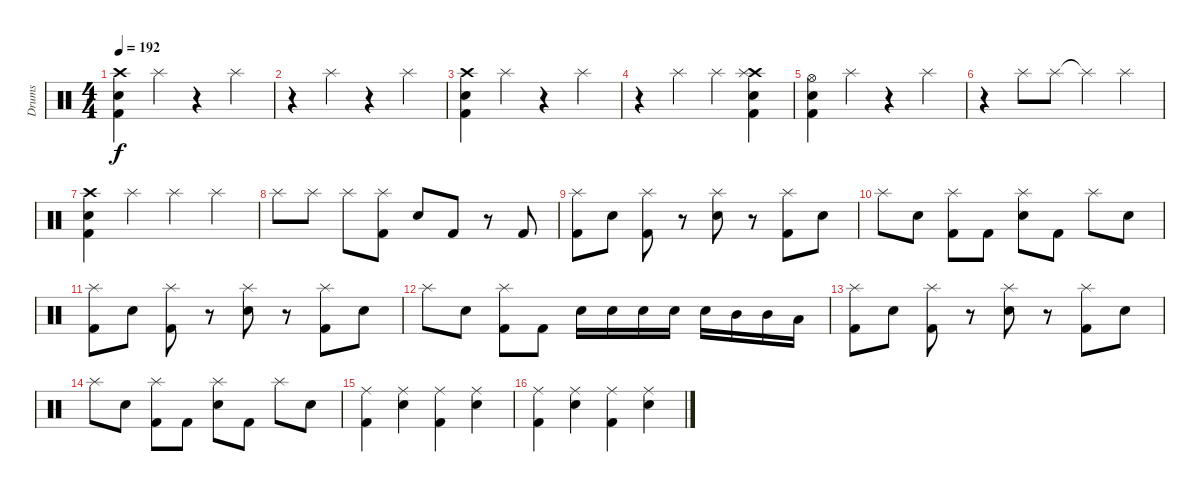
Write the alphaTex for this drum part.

\track ("Drums" "Drums") {instrument percussion}
\staff {score}
\articulation defaults
\ts (4 4)
\tempo 192
\clef neutral
\ks c
("Kick (hit) 2" "Snare (hit) 2" "Crash high (hit)").4{dy f} "Splash (hit)".4 r.4 "Splash (hit)".4 |
r.4 "Splash (hit)".4 r.4 "Splash (hit)".4 |
("Kick (hit) 2" "Snare (hit) 2" "Crash high (hit)").4 "Splash (hit)".4 r.4 "Splash (hit)".4 |
r.4 "Splash (hit)".4 "Splash (hit)".4 ("Kick (hit) 2" "Snare (hit) 2" "Crash high (hit)" "Splash (hit)").4 |
("Kick (hit) 2" "Snare (hit) 2" "Hi-Hat (open)").4 "Splash (hit)".4 r.4 "Splash (hit)".4 |
r.4 "Splash (hit)".8 "Splash (hit)".8 "Splash (hit)"{t}.4 "Splash (hit)".4 |
("Kick (hit) 2" "Snare (hit) 2" "Crash high (hit)").4 "Splash (hit)".4 "Splash (hit)".4 "Splash (hit)".4 |
"Splash (hit)".8 "Splash (hit)".8 "Splash (hit)".8 ("Splash (hit)" "Kick (hit) 2").8 "Snare (hit) 2".8 "Kick (hit) 2".8 r.8 "Kick (hit) 2".8 |
("Kick (hit) 2" "Splash (hit)").8 "Snare (hit) 2".8 ("Kick (hit) 2" "Splash (hit)").8 r.8 ("Electric Snare (hit)" "Splash (hit)").8 r.8 ("Kick (hit) 2" "Splash (hit)").8 "Snare (hit) 2".8 |
"Splash (hit)".8 "Snare (hit) 2".8 ("Kick (hit) 2" "Splash (hit)").8 "Kick (hit) 2".8 ("Electric Snare (hit)" "Splash (hit)").8 "Kick (hit) 2".8 "Splash (hit)".8 "Snare (hit) 2".8 |
("Kick (hit) 2" "Splash (hit)").8 "Snare (hit) 2".8 ("Kick (hit) 2" "Splash (hit)").8 r.8 ("Electric Snare (hit)" "Splash (hit)").8 r.8 ("Kick (hit) 2" "Splash (hit)").8 "Snare (hit) 2".8 |
"Splash (hit)".8 "Snare (hit) 2".8 ("Kick (hit) 2" "Splash (hit)").8 "Kick (hit) 2".8 "Electric Snare (hit)".16 "Electric Snare (hit)".16 "Electric Snare (hit)".16 "Snare (hit) 2".16 "Snare (hit) 2".16 "Mid Tom (hit)".16 "Mid Tom (hit)".16 "Low Tom (hit)".16 |
("Kick (hit) 2" "Splash (hit)").8 "Snare (hit) 2".8 ("Kick (hit) 2" "Splash (hit)").8 r.8 ("Electric Snare (hit)" "Splash (hit)").8 r.8 ("Kick (hit) 2" "Splash (hit)").8 "Snare (hit) 2".8 |
"Splash (hit)".8 "Snare (hit) 2".8 ("Kick (hit) 2" "Splash (hit)").8 "Kick (hit) 2".8 ("Electric Snare (hit)" "Splash (hit)").8 "Kick (hit) 2".8 "Splash (hit)".8 "Snare (hit) 2".8 |
("Kick (hit) 2" "Ride (middle)").4 ("Snare (hit) 2" "Ride (middle)").4 ("Kick (hit) 2" "Ride (middle)").4 ("Snare (hit) 2" "Ride (middle)").4 |
("Kick (hit) 2" "Ride (middle)").4 ("Snare (hit) 2" "Ride (middle)").4 ("Kick (hit) 2" "Ride (middle)").4 ("Snare (hit) 2" "Ride (middle)").4
